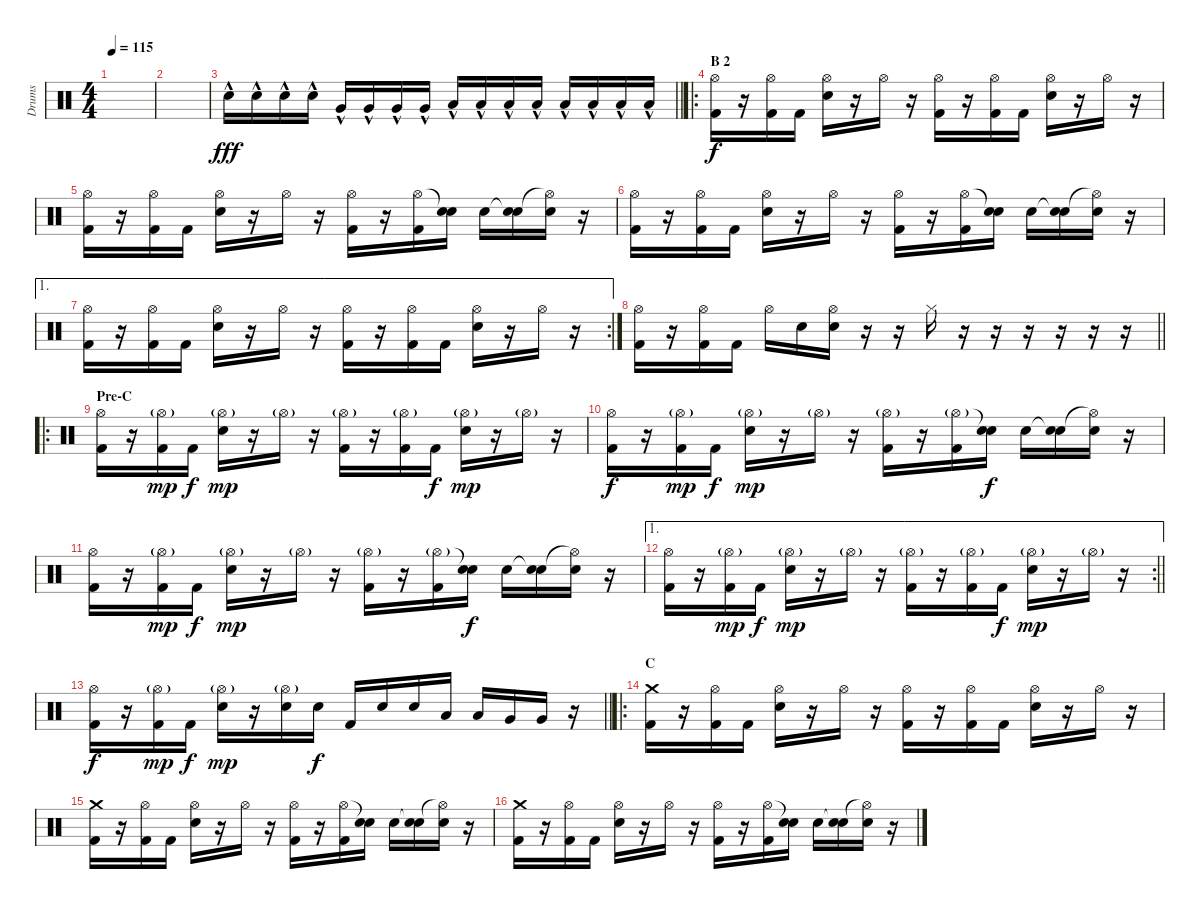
\track ("Drums" "Drums") {instrument percussion}
\staff {score}
\articulation defaults
\ts (4 4)
\tempo 115
\clef neutral
\ks c
|
|
\barLineRight lightlight "Snare (hit) 2"{hac}.16{dy fff} "Snare (hit) 2"{hac}.16 "Snare (hit) 2"{hac}.16 "Snare (hit) 2"{hac}.16 "Very Low Tom (hit)"{hac}.16 "Very Low Tom (hit)"{hac}.16 "Very Low Tom (hit)"{hac}.16 "Very Low Tom (hit)"{hac}.16 "Low Tom (hit)"{hac}.16 "Low Tom (hit)"{hac}.16 "Low Tom (hit)"{hac}.16 "Low Tom (hit)"{hac}.16 "Low Floor Tom (hit)"{hac}.16 "Low Floor Tom (hit)"{hac}.16 "Low Floor Tom (hit)"{hac}.16 "Low Floor Tom (hit)"{hac}.16
|
\ro
\section ("" "B 2")
("Hi-Hat (open)" "Kick (hit) 2").16{dy f} r.16 ("Hi-Hat (open)" "Kick (hit) 2").16 "Kick (hit) 2".16 ("Hi-Hat (open)" "Electric Snare (hit)").16 r.16 "Hi-Hat (open)".16 r.16 ("Hi-Hat (open)" "Kick (hit) 2").16 r.16 ("Hi-Hat (open)" "Kick (hit) 2").16 "Kick (hit) 2".16 ("Hi-Hat (open)" "Electric Snare (hit)").16 r.16 "Hi-Hat (open)".16 r.16 |
("Hi-Hat (open)" "Kick (hit) 2").16 r.16 ("Hi-Hat (open)" "Kick (hit) 2").16 "Kick (hit) 2".16 ("Hi-Hat (open)" "Electric Snare (hit)").16 r.16 "Hi-Hat (open)".16 r.16 ("Hi-Hat (open)" "Kick (hit) 2").16 r.16 ("Hi-Hat (open)" "Kick (hit) 2").16 ("Snare (hit)"{t} "Electric Snare (hit)").16 "Electric Snare (hit)".16 ("Snare (hit)"{t} "Electric Snare (hit)").16 ("Hi-Hat (open)"{t} "Electric Snare (hit)").16 r.16 |
("Hi-Hat (open)" "Kick (hit) 2").16 r.16 ("Hi-Hat (open)" "Kick (hit) 2").16 "Kick (hit) 2".16 ("Hi-Hat (open)" "Electric Snare (hit)").16 r.16 "Hi-Hat (open)".16 r.16 ("Hi-Hat (open)" "Kick (hit) 2").16 r.16 ("Hi-Hat (open)" "Kick (hit) 2").16 ("Snare (hit)"{t} "Electric Snare (hit)").16 "Electric Snare (hit)".16 ("Snare (hit)"{t} "Electric Snare (hit)").16 ("Hi-Hat (open)"{t} "Electric Snare (hit)").16 r.16 |
\ae 1
\rc 2
("Hi-Hat (open)" "Kick (hit) 2").16 r.16 ("Hi-Hat (open)" "Kick (hit) 2").16 "Kick (hit) 2".16 ("Hi-Hat (open)" "Electric Snare (hit)").16 r.16 "Hi-Hat (open)".16 r.16 ("Hi-Hat (open)" "Kick (hit) 2").16 r.16 ("Hi-Hat (open)" "Kick (hit) 2").16 "Kick (hit) 2".16 ("Hi-Hat (open)" "Electric Snare (hit)").16 r.16 "Hi-Hat (open)".16 r.16 |
\barLineRight lightlight
("Hi-Hat (open)" "Kick (hit) 2").16 r.16 ("Hi-Hat (open)" "Kick (hit) 2").16 "Kick (hit) 2".16 "Hi-Hat (open)".16 "Electric Snare (hit)".16 ("Hi-Hat (open)" "Electric Snare (hit)").16 r.16 r.16 "Hi-Hat (closed)".16 r.16 r.16 r.16 r.16 r.16 r.16 |
\ro
\section ("" "Pre-C")
("Hi-Hat (open)" "Kick (hit) 2").16 r.16 ("Hi-Hat (open)"{g} "Kick (hit) 2").16{dy mp} "Kick (hit) 2".16{dy f} ("Hi-Hat (open)"{g} "Electric Snare (hit)").16{dy mp} r.16 "Hi-Hat (open)"{g}.16 r.16 ("Hi-Hat (open)"{g} "Kick (hit) 2").16 r.16 ("Hi-Hat (open)"{g} "Kick (hit) 2").16 "Kick (hit) 2".16{dy f} ("Hi-Hat (open)"{g} "Electric Snare (hit)").16{dy mp} r.16 "Hi-Hat (open)"{g}.16 r.16 |
("Hi-Hat (open)" "Kick (hit) 2").16{dy f} r.16 ("Hi-Hat (open)"{g} "Kick (hit) 2").16{dy mp} "Kick (hit) 2".16{dy f} ("Hi-Hat (open)"{g} "Electric Snare (hit)").16{dy mp} r.16 "Hi-Hat (open)"{g}.16 r.16 ("Hi-Hat (open)"{g} "Kick (hit) 2").16 r.16 ("Hi-Hat (open)"{g} "Kick (hit) 2").16 ("Snare (hit)"{t} "Electric Snare (hit)").16{dy f} "Electric Snare (hit)".16 ("Snare (hit)"{t} "Electric Snare (hit)").16 ("Hi-Hat (open)"{t} "Electric Snare (hit)").16 r.16 |
("Hi-Hat (open)" "Kick (hit) 2").16 r.16 ("Hi-Hat (open)"{g} "Kick (hit) 2").16{dy mp} "Kick (hit) 2".16{dy f} ("Hi-Hat (open)"{g} "Electric Snare (hit)").16{dy mp} r.16 "Hi-Hat (open)"{g}.16 r.16 ("Hi-Hat (open)"{g} "Kick (hit) 2").16 r.16 ("Hi-Hat (open)"{g} "Kick (hit) 2").16 ("Snare (hit)"{t} "Electric Snare (hit)").16{dy f} "Electric Snare (hit)".16 ("Snare (hit)"{t} "Electric Snare (hit)").16 ("Hi-Hat (open)"{t} "Electric Snare (hit)").16 r.16 |
\ae 1
\rc 2
\barLineRight lightlight
("Hi-Hat (open)" "Kick (hit) 2").16 r.16 ("Hi-Hat (open)"{g} "Kick (hit) 2").16{dy mp} "Kick (hit) 2".16{dy f} ("Hi-Hat (open)"{g} "Electric Snare (hit)").16{dy mp} r.16 "Hi-Hat (open)"{g}.16 r.16 ("Hi-Hat (open)"{g} "Kick (hit) 2").16 r.16 ("Hi-Hat (open)"{g} "Kick (hit) 2").16 "Kick (hit) 2".16{dy f} ("Hi-Hat (open)"{g} "Electric Snare (hit)").16{dy mp} r.16 "Hi-Hat (open)"{g}.16 r.16 |
\barLineRight lightlight
("Hi-Hat (open)" "Kick (hit) 2").16{dy f} r.16 ("Hi-Hat (open)"{g} "Kick (hit) 2").16{dy mp} "Kick (hit) 2".16{dy f} ("Hi-Hat (open)"{g} "Electric Snare (hit)").16{dy mp} r.16 ("Hi-Hat (open)"{g} "Electric Snare (hit)").16 "Electric Snare (hit)".16{dy f} "Kick (hit) 2".16 "Snare (hit) 2".16 "Snare (hit) 2".16 "Low Tom (hit)".16 "Low Tom (hit)".16 "Very Low Tom (hit)".16 "Very Low Tom (hit)".16 r.16 |
\ro
\section ("" "C")
("Crash medium (hit)" "Kick (hit) 2").16 r.16 ("Hi-Hat (open)" "Kick (hit) 2").16 "Kick (hit) 2".16 ("Hi-Hat (open)" "Electric Snare (hit)").16 r.16 "Hi-Hat (open)".16 r.16 ("Hi-Hat (open)" "Kick (hit) 2").16 r.16 ("Hi-Hat (open)" "Kick (hit) 2").16 "Kick (hit) 2".16 ("Hi-Hat (open)" "Electric Snare (hit)").16 r.16 "Hi-Hat (open)".16 r.16 |
("Crash medium (hit)" "Kick (hit) 2").16 r.16 ("Hi-Hat (open)" "Kick (hit) 2").16 "Kick (hit) 2".16 ("Hi-Hat (open)" "Electric Snare (hit)").16 r.16 "Hi-Hat (open)".16 r.16 ("Hi-Hat (open)" "Kick (hit) 2").16 r.16 ("Hi-Hat (open)" "Kick (hit) 2").16 ("Snare (hit)"{t} "Electric Snare (hit)").16 "Electric Snare (hit)".16 ("Snare (hit)"{t} "Electric Snare (hit)").16 ("Hi-Hat (open)"{t} "Electric Snare (hit)").16 r.16 |
("Crash medium (hit)" "Kick (hit) 2").16 r.16 ("Hi-Hat (open)" "Kick (hit) 2").16 "Kick (hit) 2".16 ("Hi-Hat (open)" "Electric Snare (hit)").16 r.16 "Hi-Hat (open)".16 r.16 ("Hi-Hat (open)" "Kick (hit) 2").16 r.16 ("Hi-Hat (open)" "Kick (hit) 2").16 ("Snare (hit)"{t} "Electric Snare (hit)").16 "Electric Snare (hit)".16 ("Snare (hit)"{t} "Electric Snare (hit)").16 ("Hi-Hat (open)"{t} "Electric Snare (hit)").16 r.16
